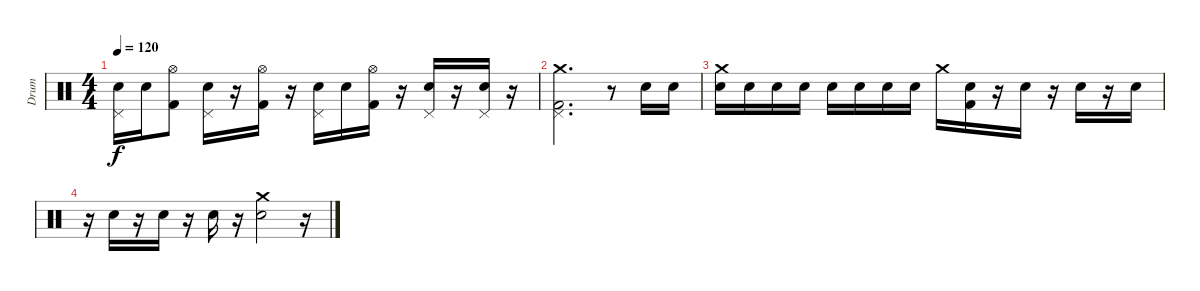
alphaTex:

\track ("Drum" "Drum") {instrument percussion}
\staff {score}
\articulation defaults
\ts (4 4)
\tempo 120
\clef neutral
\ks c
("Pedal Hi-Hat (hit)" "Snare (hit) 2").16{dy f} "Snare (hit) 2".16 ("Hi-Hat (open)" "Kick (hit) 2").8 ("Pedal Hi-Hat (hit)" "Snare (hit) 2").16 r.16 ("Hi-Hat (open)" "Kick (hit) 2").16 r.16 ("Pedal Hi-Hat (hit)" "Snare (hit) 2").16 "Snare (hit) 2".16 ("Hi-Hat (open)" "Kick (hit) 2").16 r.16 ("Pedal Hi-Hat (hit)" "Snare (hit) 2").16 r.16 ("Pedal Hi-Hat (hit)" "Snare (hit) 2").16 r.16 |
("Crash medium (hit)" "Pedal Hi-Hat (hit)" "Kick (hit) 2").2{d} r.8 "Snare (hit) 2".16 "Snare (hit) 2".16 |
("Crash medium (hit)" "Snare (hit) 2").16 "Snare (hit) 2".16 "Snare (hit) 2".16 "Snare (hit) 2".16 "Snare (hit) 2".16 "Snare (hit) 2".16 "Snare (hit) 2".16 "Snare (hit) 2".16 "Crash medium (hit)".16 ("Snare (hit) 2" "Kick (hit) 2").16 r.16 "Snare (hit) 2".16 r.16 "Snare (hit) 2".16 r.16 "Snare (hit) 2".16 |
r.16 "Snare (hit) 2".16 r.16 "Snare (hit) 2".16 r.16 "Snare (hit) 2".16 r.16 ("Crash medium (hit)" "Snare (hit) 2").2 r.16
